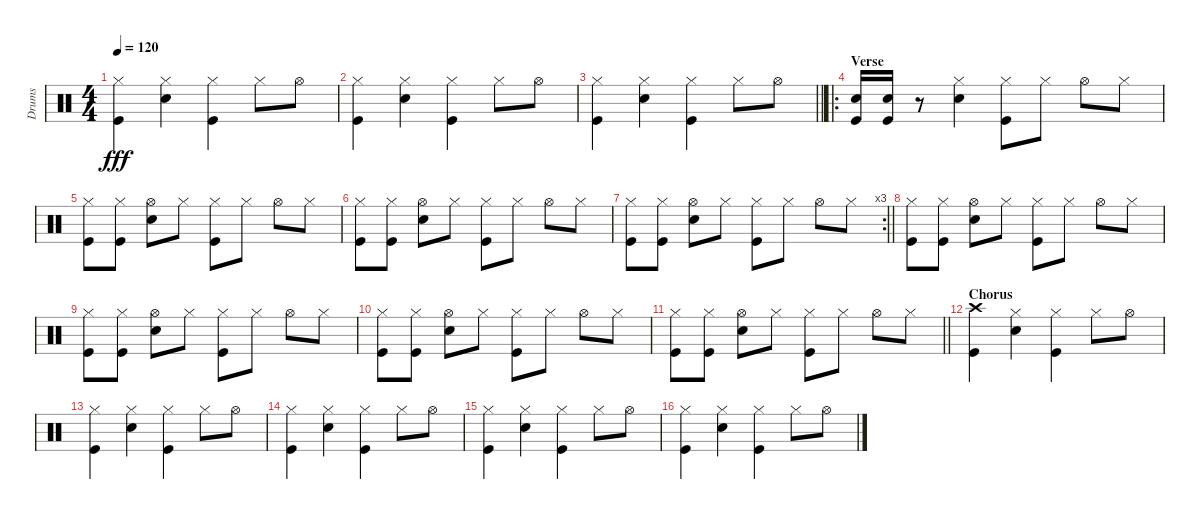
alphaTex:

\track ("Drums" "Drums") {instrument percussion}
\staff {score}
\articulation defaults
\ts (4 4)
\tempo 120
\clef neutral
\ks c
("Hi-Hat (closed)" "Kick (hit)").4{dy fff} ("Hi-Hat (closed)" "Snare (hit) 2").4 ("Hi-Hat (closed)" "Kick (hit)").4 "Hi-Hat (closed)".8 "Hi-Hat (open)".8 |
("Hi-Hat (closed)" "Kick (hit)").4 ("Hi-Hat (closed)" "Snare (hit) 2").4 ("Hi-Hat (closed)" "Kick (hit)").4 "Hi-Hat (closed)".8 "Hi-Hat (open)".8 |
\barLineRight lightlight
("Hi-Hat (closed)" "Kick (hit)").4 ("Hi-Hat (closed)" "Snare (hit) 2").4 ("Hi-Hat (closed)" "Kick (hit)").4 "Hi-Hat (closed)".8 "Hi-Hat (open)".8 |
\ro
\section ("" "Verse")
("Snare (hit) 2" "Kick (hit)").16 ("Snare (hit) 2" "Kick (hit)").16 r.8 ("Hi-Hat (closed)" "Snare (hit) 2").4 ("Hi-Hat (closed)" "Kick (hit)").8 "Hi-Hat (closed)".8 "Hi-Hat (open)".8 "Hi-Hat (closed)".8 |
("Hi-Hat (closed)" "Kick (hit)").8 ("Hi-Hat (closed)" "Kick (hit)").8 ("Hi-Hat (open)" "Snare (hit) 2").8 "Hi-Hat (closed)".8 ("Hi-Hat (closed)" "Kick (hit)").8 "Hi-Hat (closed)".8 "Hi-Hat (open)".8 "Hi-Hat (closed)".8 |
("Hi-Hat (closed)" "Kick (hit)").8 ("Hi-Hat (closed)" "Kick (hit)").8 ("Hi-Hat (open)" "Snare (hit) 2").8 "Hi-Hat (closed)".8 ("Hi-Hat (closed)" "Kick (hit)").8 "Hi-Hat (closed)".8 "Hi-Hat (open)".8 "Hi-Hat (closed)".8 |
\rc 3
\barLineRight lightlight
("Hi-Hat (closed)" "Kick (hit)").8 ("Hi-Hat (closed)" "Kick (hit)").8 ("Hi-Hat (open)" "Snare (hit) 2").8 "Hi-Hat (closed)".8 ("Hi-Hat (closed)" "Kick (hit)").8 "Hi-Hat (closed)".8 "Hi-Hat (open)".8 "Hi-Hat (closed)".8 |
("Hi-Hat (closed)" "Kick (hit)").8 ("Hi-Hat (closed)" "Kick (hit)").8 ("Hi-Hat (open)" "Snare (hit) 2").8 "Hi-Hat (closed)".8 ("Hi-Hat (closed)" "Kick (hit)").8 "Hi-Hat (closed)".8 "Hi-Hat (open)".8 "Hi-Hat (closed)".8 |
("Hi-Hat (closed)" "Kick (hit)").8 ("Hi-Hat (closed)" "Kick (hit)").8 ("Hi-Hat (open)" "Snare (hit) 2").8 "Hi-Hat (closed)".8 ("Hi-Hat (closed)" "Kick (hit)").8 "Hi-Hat (closed)".8 "Hi-Hat (open)".8 "Hi-Hat (closed)".8 |
("Hi-Hat (closed)" "Kick (hit)").8 ("Hi-Hat (closed)" "Kick (hit)").8 ("Hi-Hat (open)" "Snare (hit) 2").8 "Hi-Hat (closed)".8 ("Hi-Hat (closed)" "Kick (hit)").8 "Hi-Hat (closed)".8 "Hi-Hat (open)".8 "Hi-Hat (closed)".8 |
\barLineRight lightlight
("Hi-Hat (closed)" "Kick (hit)").8 ("Hi-Hat (closed)" "Kick (hit)").8 ("Hi-Hat (open)" "Snare (hit) 2").8 "Hi-Hat (closed)".8 ("Hi-Hat (closed)" "Kick (hit)").8 "Hi-Hat (closed)".8 "Hi-Hat (open)".8 "Hi-Hat (closed)".8 |
\section ("" "Chorus")
("Crash high (hit)" "Kick (hit)").4 ("Hi-Hat (closed)" "Snare (hit) 2").4 ("Hi-Hat (closed)" "Kick (hit)").4 "Hi-Hat (closed)".8 "Hi-Hat (open)".8 |
("Hi-Hat (closed)" "Kick (hit)").4 ("Hi-Hat (closed)" "Snare (hit) 2").4 ("Hi-Hat (closed)" "Kick (hit)").4 "Hi-Hat (closed)".8 "Hi-Hat (open)".8 |
("Hi-Hat (closed)" "Kick (hit)").4 ("Hi-Hat (closed)" "Snare (hit) 2").4 ("Hi-Hat (closed)" "Kick (hit)").4 "Hi-Hat (closed)".8 "Hi-Hat (open)".8 |
("Hi-Hat (closed)" "Kick (hit)").4 ("Hi-Hat (closed)" "Snare (hit) 2").4 ("Hi-Hat (closed)" "Kick (hit)").4 "Hi-Hat (closed)".8 "Hi-Hat (open)".8 |
("Hi-Hat (closed)" "Kick (hit)").4 ("Hi-Hat (closed)" "Snare (hit) 2").4 ("Hi-Hat (closed)" "Kick (hit)").4 "Hi-Hat (closed)".8 "Hi-Hat (open)".8
